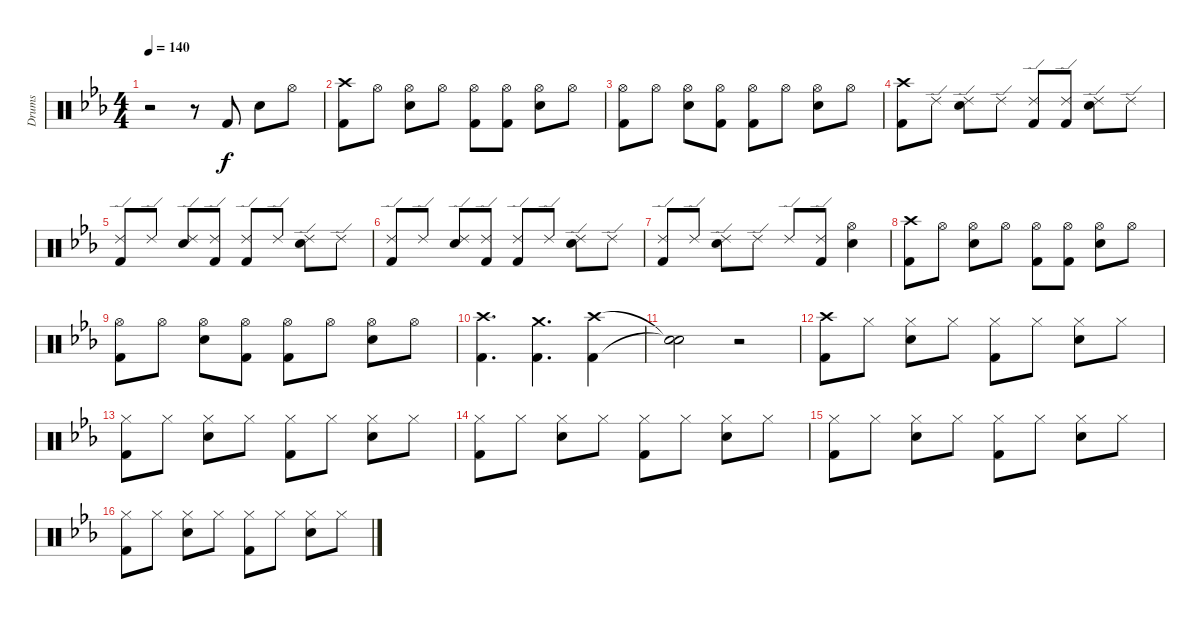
\track ("Drums" "Drums") {instrument percussion}
\staff {score}
\articulation defaults
\ts (4 4)
\tempo 140
\clef neutral
\ks eb
r.2{dy f} r.8 "Kick (hit) 2".8 "Snare (hit) 2".8 "Hi-Hat (open)".8 |
("Crash high (hit)" "Kick (hit) 2").8 "Hi-Hat (open)".8 ("Hi-Hat (open)" "Snare (hit) 2").8 "Hi-Hat (open)".8 ("Hi-Hat (open)" "Kick (hit) 2").8 ("Hi-Hat (open)" "Kick (hit) 2").8 ("Hi-Hat (open)" "Snare (hit) 2").8 "Hi-Hat (open)".8 |
("Hi-Hat (open)" "Kick (hit) 2").8 "Hi-Hat (open)".8 ("Hi-Hat (open)" "Snare (hit) 2").8 ("Hi-Hat (open)" "Kick (hit) 2").8 ("Hi-Hat (open)" "Kick (hit) 2").8 "Hi-Hat (open)".8 ("Hi-Hat (open)" "Snare (hit) 2").8 "Hi-Hat (open)".8 |
("Crash high (hit)" "Kick (hit) 2").8 "Ride (edge) 2".8 ("Ride (edge) 2" "Snare (hit) 2").8 "Ride (edge) 2".8 ("Ride (edge) 2" "Kick (hit) 2").8 ("Ride (edge) 2" "Kick (hit) 2").8 ("Ride (edge) 2" "Snare (hit) 2").8 "Ride (edge) 2".8 |
("Ride (edge) 2" "Kick (hit) 2").8 "Ride (edge) 2".8 ("Ride (edge) 2" "Snare (hit) 2").8 ("Ride (edge) 2" "Kick (hit) 2").8 ("Ride (edge) 2" "Kick (hit) 2").8 "Ride (edge) 2".8 ("Ride (edge) 2" "Snare (hit) 2").8 "Ride (edge) 2".8 |
("Ride (edge) 2" "Kick (hit) 2").8 "Ride (edge) 2".8 ("Ride (edge) 2" "Snare (hit) 2").8 ("Ride (edge) 2" "Kick (hit) 2").8 ("Ride (edge) 2" "Kick (hit) 2").8 "Ride (edge) 2".8 ("Ride (edge) 2" "Snare (hit) 2").8 "Ride (edge) 2".8 |
("Ride (edge) 2" "Kick (hit) 2").8 "Ride (edge) 2".8 ("Ride (edge) 2" "Snare (hit) 2").8 "Ride (edge) 2".8 "Ride (edge) 2".8 ("Ride (edge) 2" "Kick (hit) 2").8 ("Hi-Hat (open)" "Snare (hit) 2").4 |
("Crash high (hit)" "Kick (hit) 2").8 "Hi-Hat (open)".8 ("Hi-Hat (open)" "Snare (hit) 2").8 "Hi-Hat (open)".8 ("Hi-Hat (open)" "Kick (hit) 2").8 ("Hi-Hat (open)" "Kick (hit) 2").8 ("Hi-Hat (open)" "Snare (hit) 2").8 "Hi-Hat (open)".8 |
("Hi-Hat (open)" "Kick (hit) 2").8 "Hi-Hat (open)".8 ("Hi-Hat (open)" "Snare (hit) 2").8 ("Hi-Hat (open)" "Kick (hit) 2").8 ("Hi-Hat (open)" "Kick (hit) 2").8 "Hi-Hat (open)".8 ("Hi-Hat (open)" "Snare (hit) 2").8 "Hi-Hat (open)".8 |
("Crash high (hit)" "Kick (hit) 2").4{d} ("Crash medium (hit)" "Kick (hit) 2").4{d} ("Crash high (hit)" "Kick (hit) 2").4 |
("Snare (hit)"{t} "Snare (hit)"{t}).2 r.2 |
("Crash high (hit)" "Kick (hit) 2").8 "Hi-Hat (closed)".8 ("Hi-Hat (closed)" "Snare (hit) 2").8 "Hi-Hat (closed)".8 ("Hi-Hat (closed)" "Kick (hit) 2").8 "Hi-Hat (closed)".8 ("Hi-Hat (closed)" "Snare (hit) 2").8 "Hi-Hat (closed)".8 |
("Hi-Hat (closed)" "Kick (hit) 2").8 "Hi-Hat (closed)".8 ("Hi-Hat (closed)" "Snare (hit) 2").8 "Hi-Hat (closed)".8 ("Hi-Hat (closed)" "Kick (hit) 2").8 "Hi-Hat (closed)".8 ("Hi-Hat (closed)" "Snare (hit) 2").8 "Hi-Hat (closed)".8 |
("Hi-Hat (closed)" "Kick (hit) 2").8 "Hi-Hat (closed)".8 ("Hi-Hat (closed)" "Snare (hit) 2").8 "Hi-Hat (closed)".8 ("Hi-Hat (closed)" "Kick (hit) 2").8 "Hi-Hat (closed)".8 ("Hi-Hat (closed)" "Snare (hit) 2").8 "Hi-Hat (closed)".8 |
("Hi-Hat (closed)" "Kick (hit) 2").8 "Hi-Hat (closed)".8 ("Hi-Hat (closed)" "Snare (hit) 2").8 "Hi-Hat (closed)".8 ("Hi-Hat (closed)" "Kick (hit) 2").8 "Hi-Hat (closed)".8 ("Hi-Hat (closed)" "Snare (hit) 2").8 "Hi-Hat (closed)".8 |
("Hi-Hat (closed)" "Kick (hit) 2").8 "Hi-Hat (closed)".8 ("Hi-Hat (closed)" "Snare (hit) 2").8 "Hi-Hat (closed)".8 ("Hi-Hat (closed)" "Kick (hit) 2").8 "Hi-Hat (closed)".8 ("Hi-Hat (closed)" "Snare (hit) 2").8 "Hi-Hat (closed)".8
